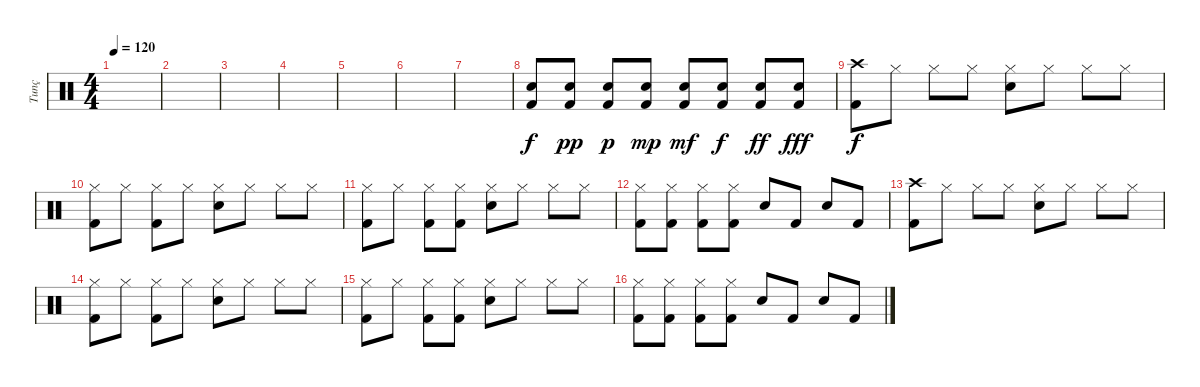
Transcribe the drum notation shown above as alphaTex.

\track ("Tunç" "Tunç") {instrument percussion}
\staff {score}
\articulation defaults
\ts (4 4)
\tempo 120
\clef neutral
\ks c
|
|
|
|
|
|
|
("Kick (hit) 2" "Snare (hit) 2").8 ("Kick (hit) 2" "Snare (hit) 2").8{dy pp} ("Kick (hit) 2" "Snare (hit) 2").8{dy p} ("Kick (hit) 2" "Snare (hit) 2").8{dy mp} ("Kick (hit) 2" "Snare (hit) 2").8{dy mf} ("Kick (hit) 2" "Snare (hit) 2").8{dy f} ("Kick (hit) 2" "Snare (hit) 2").8{dy ff} ("Kick (hit) 2" "Snare (hit) 2").8{dy fff} |
("Kick (hit) 2" "Crash high (hit)").8{dy f} "Hi-Hat (closed)".8 "Hi-Hat (closed)".8 "Hi-Hat (closed)".8 ("Snare (hit) 2" "Hi-Hat (closed)").8 "Hi-Hat (closed)".8 "Hi-Hat (closed)".8 "Hi-Hat (closed)".8 |
("Kick (hit) 2" "Hi-Hat (closed)").8 "Hi-Hat (closed)".8 ("Kick (hit) 2" "Hi-Hat (closed)").8 "Hi-Hat (closed)".8 ("Snare (hit) 2" "Hi-Hat (closed)").8 "Hi-Hat (closed)".8 "Hi-Hat (closed)".8 "Hi-Hat (closed)".8 |
("Kick (hit) 2" "Hi-Hat (closed)").8 "Hi-Hat (closed)".8 ("Kick (hit) 2" "Hi-Hat (closed)").8 ("Kick (hit) 2" "Hi-Hat (closed)").8 ("Snare (hit) 2" "Hi-Hat (closed)").8 "Hi-Hat (closed)".8 "Hi-Hat (closed)".8 "Hi-Hat (closed)".8 |
("Kick (hit) 2" "Hi-Hat (closed)").8 ("Kick (hit) 2" "Hi-Hat (closed)").8 ("Kick (hit) 2" "Hi-Hat (closed)").8 ("Kick (hit) 2" "Hi-Hat (closed)").8 "Snare (hit) 2".8 "Kick (hit) 2".8 "Snare (hit) 2".8 "Kick (hit) 2".8 |
("Kick (hit) 2" "Crash high (hit)").8 "Hi-Hat (closed)".8 "Hi-Hat (closed)".8 "Hi-Hat (closed)".8 ("Snare (hit) 2" "Hi-Hat (closed)").8 "Hi-Hat (closed)".8 "Hi-Hat (closed)".8 "Hi-Hat (closed)".8 |
("Kick (hit) 2" "Hi-Hat (closed)").8 "Hi-Hat (closed)".8 ("Kick (hit) 2" "Hi-Hat (closed)").8 "Hi-Hat (closed)".8 ("Snare (hit) 2" "Hi-Hat (closed)").8 "Hi-Hat (closed)".8 "Hi-Hat (closed)".8 "Hi-Hat (closed)".8 |
("Kick (hit) 2" "Hi-Hat (closed)").8 "Hi-Hat (closed)".8 ("Kick (hit) 2" "Hi-Hat (closed)").8 ("Kick (hit) 2" "Hi-Hat (closed)").8 ("Snare (hit) 2" "Hi-Hat (closed)").8 "Hi-Hat (closed)".8 "Hi-Hat (closed)".8 "Hi-Hat (closed)".8 |
("Kick (hit) 2" "Hi-Hat (closed)").8 ("Kick (hit) 2" "Hi-Hat (closed)").8 ("Kick (hit) 2" "Hi-Hat (closed)").8 ("Kick (hit) 2" "Hi-Hat (closed)").8 "Snare (hit) 2".8 "Kick (hit) 2".8 "Snare (hit) 2".8 "Kick (hit) 2".8
